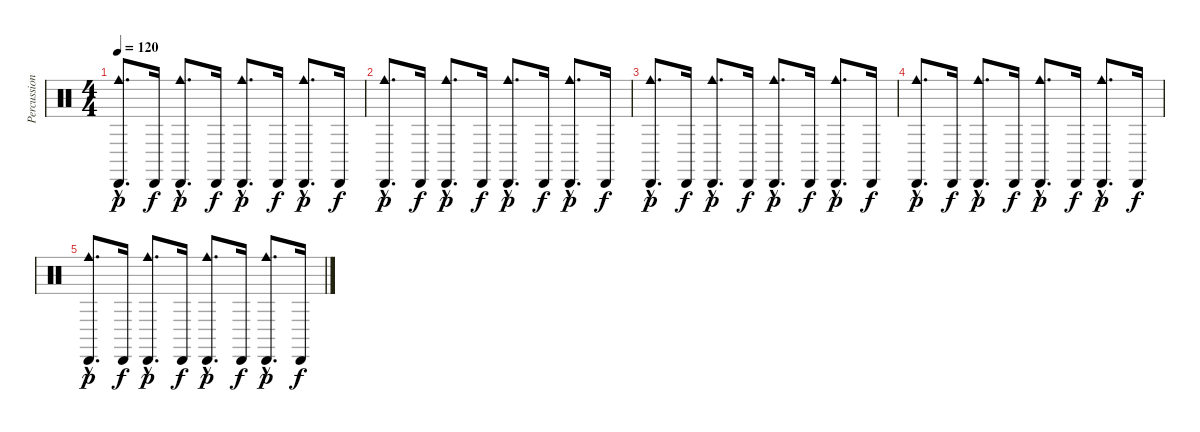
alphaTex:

\track ("Percussions" "Percussion") {instrument percussion}
\staff {score}
\articulation defaults
\ts (4 4)
\tempo 120
\clef neutral
\ks c
("Cabasa (hit)"{hac} "Cowbell medium (hit)"{hac}).8{d dy p} "Cabasa (hit)".16{dy f} ("Cabasa (hit)"{hac} "Cowbell medium (hit)"{hac}).8{d dy p} "Cabasa (hit)".16{dy f} ("Cabasa (hit)"{hac} "Cowbell medium (hit)"{hac}).8{d dy p} "Cabasa (hit)".16{dy f} ("Cabasa (hit)"{hac} "Cowbell medium (hit)"{hac}).8{d dy p} "Cabasa (hit)".16{dy f} |
("Cabasa (hit)"{hac} "Cowbell medium (hit)"{hac}).8{d dy p} "Cabasa (hit)".16{dy f} ("Cabasa (hit)"{hac} "Cowbell medium (hit)"{hac}).8{d dy p} "Cabasa (hit)".16{dy f} ("Cabasa (hit)"{hac} "Cowbell medium (hit)"{hac}).8{d dy p} "Cabasa (hit)".16{dy f} ("Cabasa (hit)"{hac} "Cowbell medium (hit)"{hac}).8{d dy p} "Cabasa (hit)".16{dy f} |
("Cabasa (hit)"{hac} "Cowbell medium (hit)"{hac}).8{d dy p} "Cabasa (hit)".16{dy f} ("Cabasa (hit)"{hac} "Cowbell medium (hit)"{hac}).8{d dy p} "Cabasa (hit)".16{dy f} ("Cabasa (hit)"{hac} "Cowbell medium (hit)"{hac}).8{d dy p} "Cabasa (hit)".16{dy f} ("Cabasa (hit)"{hac} "Cowbell medium (hit)"{hac}).8{d dy p} "Cabasa (hit)".16{dy f} |
("Cabasa (hit)"{hac} "Cowbell medium (hit)"{hac}).8{d dy p} "Cabasa (hit)".16{dy f} ("Cabasa (hit)"{hac} "Cowbell medium (hit)"{hac}).8{d dy p} "Cabasa (hit)".16{dy f} ("Cabasa (hit)"{hac} "Cowbell medium (hit)"{hac}).8{d dy p} "Cabasa (hit)".16{dy f} ("Cabasa (hit)"{hac} "Cowbell medium (hit)"{hac}).8{d dy p} "Cabasa (hit)".16{dy f} |
("Cabasa (hit)"{hac} "Cowbell medium (hit)"{hac}).8{d dy p} "Cabasa (hit)".16{dy f} ("Cabasa (hit)"{hac} "Cowbell medium (hit)"{hac}).8{d dy p} "Cabasa (hit)".16{dy f} ("Cabasa (hit)"{hac} "Cowbell medium (hit)"{hac}).8{d dy p} "Cabasa (hit)".16{dy f} ("Cabasa (hit)"{hac} "Cowbell medium (hit)"{hac}).8{d dy p} "Cabasa (hit)".16{dy f}
